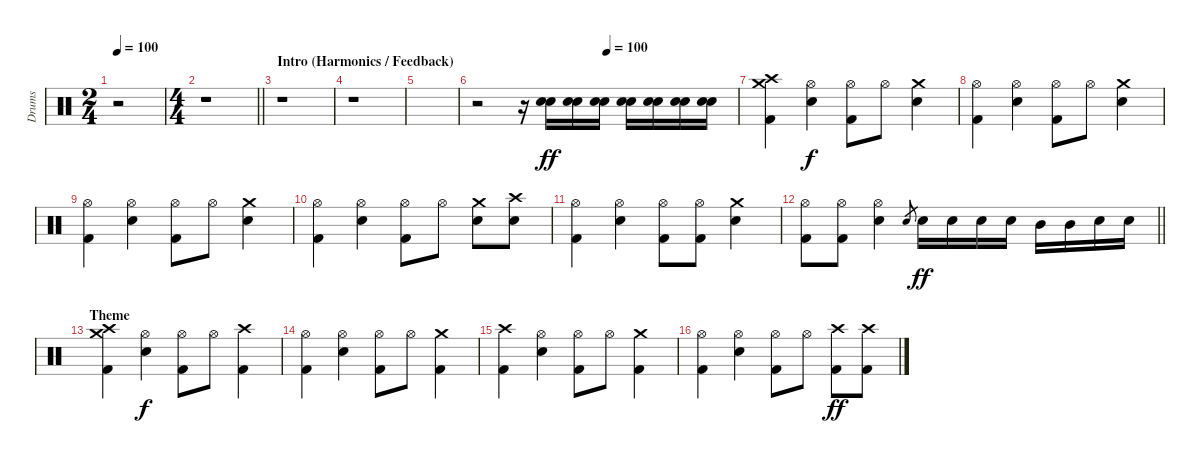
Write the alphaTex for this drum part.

\track ("Drums" "Drums") {instrument percussion}
\staff {score}
\articulation defaults
\ts (2 4)
\tempo 100
\clef neutral
\ks c
r.2{dy ff} |
\ts (4 4)
\barLineRight lightlight
r.1 |
\section ("" "Intro (Harmonics / Feedback)")
r.1 |
r.1 |
|
\tempo (100 0.5)
r.2 r.16 ("Electric Snare (hit)" "Snare (hit) 2").16 ("Electric Snare (hit)" "Snare (hit) 2").16 ("Electric Snare (hit)" "Snare (hit) 2").16 ("Electric Snare (hit)" "Snare (hit) 2").16 ("Electric Snare (hit)" "Snare (hit) 2").16 ("Electric Snare (hit)" "Snare (hit) 2").16 ("Electric Snare (hit)" "Snare (hit) 2").16 |
("Crash high (hit)" "Crash medium (hit)" "Kick (hit) 2").4 ("Hi-Hat (open)" "Snare (hit) 2").4{dy f} ("Hi-Hat (open)" "Kick (hit) 2").8 "Hi-Hat (open)".8 ("Crash medium (hit)" "Snare (hit) 2").4 |
("Hi-Hat (open)" "Kick (hit) 2").4 ("Hi-Hat (open)" "Snare (hit) 2").4 ("Hi-Hat (open)" "Kick (hit) 2").8 "Hi-Hat (open)".8 ("Crash medium (hit)" "Snare (hit) 2").4 |
("Hi-Hat (open)" "Kick (hit) 2").4 ("Hi-Hat (open)" "Snare (hit) 2").4 ("Hi-Hat (open)" "Kick (hit) 2").8 "Hi-Hat (open)".8 ("Crash medium (hit)" "Snare (hit) 2").4 |
("Hi-Hat (open)" "Kick (hit) 2").4 ("Hi-Hat (open)" "Snare (hit) 2").4 ("Hi-Hat (open)" "Kick (hit) 2").8 "Hi-Hat (open)".8 ("Crash medium (hit)" "Snare (hit) 2").8 ("Crash high (hit)" "Snare (hit) 2").8 |
("Hi-Hat (open)" "Kick (hit) 2").4 ("Hi-Hat (open)" "Snare (hit) 2").4 ("Hi-Hat (open)" "Kick (hit) 2").8 ("Hi-Hat (open)" "Kick (hit) 2").8 ("Crash medium (hit)" "Snare (hit) 2").4 |
\barLineRight lightlight
("Hi-Hat (open)" "Kick (hit) 2").8 ("Hi-Hat (open)" "Kick (hit) 2").8 ("Hi-Hat (open)" "Electric Snare (hit)").4 "Snare (hit) 2".8{gr} "Snare (hit) 2".16{dy ff} "Snare (hit) 2".16 "Snare (hit) 2".16 "Snare (hit) 2".16 "Mid Tom (hit)".16 "Mid Tom (hit)".16 "Snare (hit) 2".16 "Snare (hit) 2".16 |
\section ("" "Theme")
("Crash high (hit)" "Crash medium (hit)" "Kick (hit) 2").4 ("Hi-Hat (open)" "Snare (hit) 2").4{dy f} ("Hi-Hat (open)" "Kick (hit) 2").8 "Hi-Hat (open)".8 ("Crash high (hit)" "Kick (hit) 2").4 |
("Hi-Hat (open)" "Kick (hit) 2").4 ("Hi-Hat (open)" "Snare (hit) 2").4 ("Hi-Hat (open)" "Kick (hit) 2").8 "Hi-Hat (open)".8 ("Crash medium (hit)" "Kick (hit) 2").4 |
("Crash high (hit)" "Kick (hit) 2").4 ("Hi-Hat (open)" "Snare (hit) 2").4 ("Hi-Hat (open)" "Kick (hit) 2").8 "Hi-Hat (open)".8 ("Crash medium (hit)" "Kick (hit) 2").4 |
("Hi-Hat (open)" "Kick (hit) 2").4 ("Hi-Hat (open)" "Snare (hit) 2").4 ("Hi-Hat (open)" "Kick (hit) 2").8 "Hi-Hat (open)".8 ("Crash high (hit)" "Kick (hit) 2").8{dy ff} ("Crash high (hit)" "Kick (hit) 2").8
